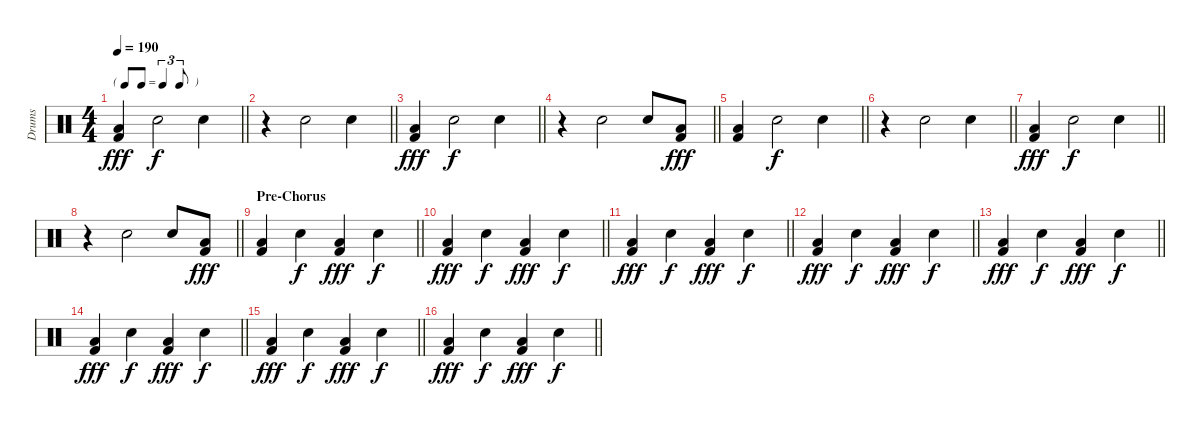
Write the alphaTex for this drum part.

\track ("Drums" "Drums") {instrument percussion}
\staff {score}
\articulation defaults
\ts (4 4)
\tf triplet8th
\tempo 190
\clef neutral
\barLineRight lightlight
\ks c
("Low Tom (hit)" "Kick (hit) 2").4{dy fff} "Hand Clap (hit)".2{dy f} "Hand Clap (hit)".4 |
\barLineRight lightlight
r.4 "Hand Clap (hit)".2 "Hand Clap (hit)".4 |
\barLineRight lightlight
("Low Tom (hit)" "Kick (hit) 2").4{dy fff} "Hand Clap (hit)".2{dy f} "Hand Clap (hit)".4 |
\barLineRight lightlight
r.4 "Hand Clap (hit)".2 "Hand Clap (hit)".8 ("Low Tom (hit)" "Kick (hit) 2").8{dy fff} |
\barLineRight lightlight
("Low Tom (hit)" "Kick (hit) 2").4 "Hand Clap (hit)".2{dy f} "Hand Clap (hit)".4 |
\barLineRight lightlight
r.4 "Hand Clap (hit)".2 "Hand Clap (hit)".4 |
\barLineRight lightlight
("Low Tom (hit)" "Kick (hit) 2").4{dy fff} "Hand Clap (hit)".2{dy f} "Hand Clap (hit)".4 |
\barLineRight lightlight
r.4 "Hand Clap (hit)".2 "Hand Clap (hit)".8 ("Low Tom (hit)" "Kick (hit) 2").8{dy fff} |
\section ("" "Pre-Chorus")
\barLineRight lightlight
("Low Tom (hit)" "Kick (hit) 2").4 "Hand Clap (hit)".4{dy f} ("Low Tom (hit)" "Kick (hit) 2").4{dy fff} "Hand Clap (hit)".4{dy f} |
\barLineRight lightlight
("Low Tom (hit)" "Kick (hit) 2").4{dy fff} "Hand Clap (hit)".4{dy f} ("Low Tom (hit)" "Kick (hit) 2").4{dy fff} "Hand Clap (hit)".4{dy f} |
\barLineRight lightlight
("Low Tom (hit)" "Kick (hit) 2").4{dy fff} "Hand Clap (hit)".4{dy f} ("Low Tom (hit)" "Kick (hit) 2").4{dy fff} "Hand Clap (hit)".4{dy f} |
\barLineRight lightlight
("Low Tom (hit)" "Kick (hit) 2").4{dy fff} "Hand Clap (hit)".4{dy f} ("Low Tom (hit)" "Kick (hit) 2").4{dy fff} "Hand Clap (hit)".4{dy f} |
\barLineRight lightlight
("Low Tom (hit)" "Kick (hit) 2").4{dy fff} "Hand Clap (hit)".4{dy f} ("Low Tom (hit)" "Kick (hit) 2").4{dy fff} "Hand Clap (hit)".4{dy f} |
\barLineRight lightlight
("Low Tom (hit)" "Kick (hit) 2").4{dy fff} "Hand Clap (hit)".4{dy f} ("Low Tom (hit)" "Kick (hit) 2").4{dy fff} "Hand Clap (hit)".4{dy f} |
\barLineRight lightlight
("Low Tom (hit)" "Kick (hit) 2").4{dy fff} "Hand Clap (hit)".4{dy f} ("Low Tom (hit)" "Kick (hit) 2").4{dy fff} "Hand Clap (hit)".4{dy f} |
\barLineRight lightlight
("Low Tom (hit)" "Kick (hit) 2").4{dy fff} "Hand Clap (hit)".4{dy f} ("Low Tom (hit)" "Kick (hit) 2").4{dy fff} "Hand Clap (hit)".4{dy f}
